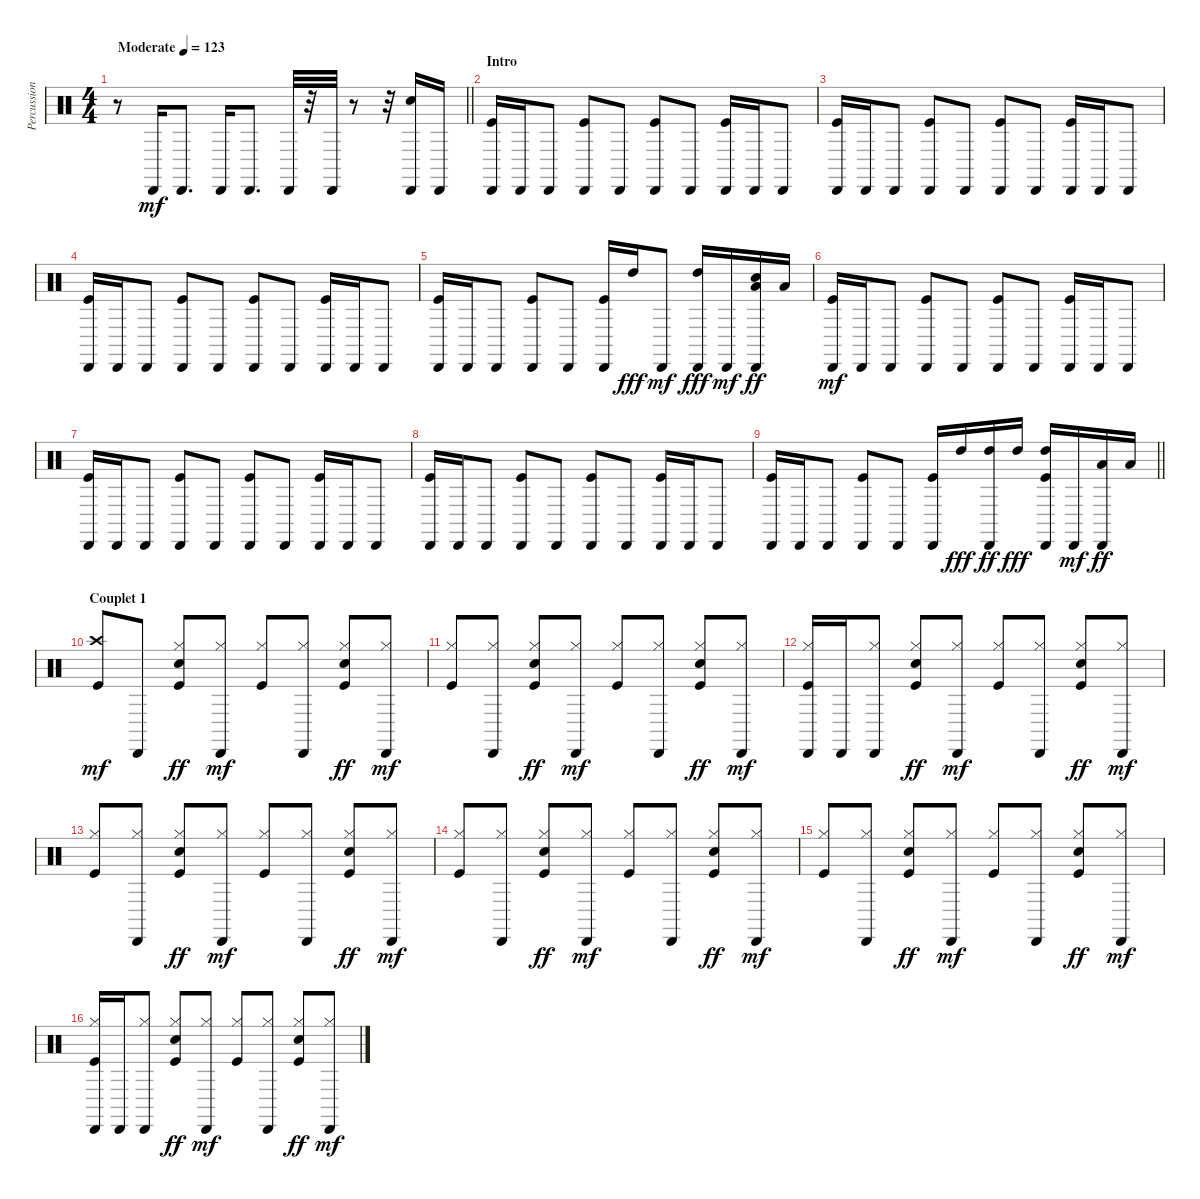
\track ("Percussions" "Percussion") {instrument percussion}
\staff {score}
\articulation defaults
\ts (4 4)
\tempo (123 "Moderate")
\clef neutral
\barLineRight lightlight
\ks c
r.8{dy mf} "Cabasa (hit)".16 "Cabasa (hit)".8{d} "Cabasa (hit)".16 "Cabasa (hit)".8{d} "Cabasa (hit)".32 r.32 "Cabasa (hit)".32 r.8 r.32 ("Hand Clap (hit)" "Cabasa (hit)").16 "Cabasa (hit)".16 |
\section ("" "Intro")
("Kick (hit)" "Cabasa (hit)").16 "Cabasa (hit)".16 "Cabasa (hit)".8 ("Kick (hit)" "Cabasa (hit)").8 "Cabasa (hit)".8 ("Kick (hit)" "Cabasa (hit)").8 "Cabasa (hit)".8 ("Kick (hit)" "Cabasa (hit)").16 "Cabasa (hit)".16 "Cabasa (hit)".8 |
("Kick (hit)" "Cabasa (hit)").16 "Cabasa (hit)".16 "Cabasa (hit)".8 ("Kick (hit)" "Cabasa (hit)").8 "Cabasa (hit)".8 ("Kick (hit)" "Cabasa (hit)").8 "Cabasa (hit)".8 ("Kick (hit)" "Cabasa (hit)").16 "Cabasa (hit)".16 "Cabasa (hit)".8 |
("Kick (hit)" "Cabasa (hit)").16 "Cabasa (hit)".16 "Cabasa (hit)".8 ("Kick (hit)" "Cabasa (hit)").8 "Cabasa (hit)".8 ("Kick (hit)" "Cabasa (hit)").8 "Cabasa (hit)".8 ("Kick (hit)" "Cabasa (hit)").16 "Cabasa (hit)".16 "Cabasa (hit)".8 |
("Kick (hit)" "Cabasa (hit)").16 "Cabasa (hit)".16 "Cabasa (hit)".8 ("Kick (hit)" "Cabasa (hit)").8 "Cabasa (hit)".8 ("Kick (hit)" "Cabasa (hit)").16 "High Tom (hit)".16{dy fff} "Cabasa (hit)".8{dy mf} ("Cabasa (hit)" "High Tom (hit)").16{dy fff} "Cabasa (hit)".16{dy mf} ("Hand Clap (hit)" "Cabasa (hit)" "Low Tom (hit)").16{dy ff} "Low Tom (hit)".16 |
("Kick (hit)" "Cabasa (hit)").16{dy mf} "Cabasa (hit)".16 "Cabasa (hit)".8 ("Kick (hit)" "Cabasa (hit)").8 "Cabasa (hit)".8 ("Kick (hit)" "Cabasa (hit)").8 "Cabasa (hit)".8 ("Kick (hit)" "Cabasa (hit)").16 "Cabasa (hit)".16 "Cabasa (hit)".8 |
("Kick (hit)" "Cabasa (hit)").16 "Cabasa (hit)".16 "Cabasa (hit)".8 ("Kick (hit)" "Cabasa (hit)").8 "Cabasa (hit)".8 ("Kick (hit)" "Cabasa (hit)").8 "Cabasa (hit)".8 ("Kick (hit)" "Cabasa (hit)").16 "Cabasa (hit)".16 "Cabasa (hit)".8 |
("Kick (hit)" "Cabasa (hit)").16 "Cabasa (hit)".16 "Cabasa (hit)".8 ("Kick (hit)" "Cabasa (hit)").8 "Cabasa (hit)".8 ("Kick (hit)" "Cabasa (hit)").8 "Cabasa (hit)".8 ("Kick (hit)" "Cabasa (hit)").16 "Cabasa (hit)".16 "Cabasa (hit)".8 |
\barLineRight lightlight
("Kick (hit)" "Cabasa (hit)").16 "Cabasa (hit)".16 "Cabasa (hit)".8 ("Kick (hit)" "Cabasa (hit)").8 "Cabasa (hit)".8 ("Kick (hit)" "Cabasa (hit)").16 "High Tom (hit)".16{dy fff} ("Cabasa (hit)" "High Tom (hit)").16{dy ff} "High Tom (hit)".16{dy fff} ("Kick (hit)" "Cabasa (hit)" "High Tom (hit)").16 "Cabasa (hit)".16{dy mf} ("Cabasa (hit)" "Low Tom (hit)").16{dy ff} "Low Tom (hit)".16 |
\section ("" "Couplet 1")
("Kick (hit)" "Crash high (hit)").8{dy mf} "Cabasa (hit)".8 ("Kick (hit)" "Snare (hit) 2" "Hi-Hat (closed)").8{dy ff} ("Hi-Hat (closed)" "Cabasa (hit)").8{dy mf} ("Kick (hit)" "Hi-Hat (closed)").8 ("Hi-Hat (closed)" "Cabasa (hit)").8 ("Kick (hit)" "Snare (hit) 2" "Hi-Hat (closed)").8{dy ff} ("Hi-Hat (closed)" "Cabasa (hit)").8{dy mf} |
("Kick (hit)" "Hi-Hat (closed)").8 ("Hi-Hat (closed)" "Cabasa (hit)").8 ("Kick (hit)" "Snare (hit) 2" "Hi-Hat (closed)").8{dy ff} ("Hi-Hat (closed)" "Cabasa (hit)").8{dy mf} ("Kick (hit)" "Hi-Hat (closed)").8 ("Hi-Hat (closed)" "Cabasa (hit)").8 ("Kick (hit)" "Snare (hit) 2" "Hi-Hat (closed)").8{dy ff} ("Hi-Hat (closed)" "Cabasa (hit)").8{dy mf} |
("Kick (hit)" "Hi-Hat (closed)" "Cabasa (hit)").16 "Cabasa (hit)".16 ("Hi-Hat (closed)" "Cabasa (hit)").8 ("Kick (hit)" "Snare (hit) 2" "Hi-Hat (closed)").8{dy ff} ("Hi-Hat (closed)" "Cabasa (hit)").8{dy mf} ("Kick (hit)" "Hi-Hat (closed)").8 ("Hi-Hat (closed)" "Cabasa (hit)").8 ("Kick (hit)" "Snare (hit) 2" "Hi-Hat (closed)").8{dy ff} ("Hi-Hat (closed)" "Cabasa (hit)").8{dy mf} |
("Kick (hit)" "Hi-Hat (closed)").8 ("Hi-Hat (closed)" "Cabasa (hit)").8 ("Kick (hit)" "Snare (hit) 2" "Hi-Hat (closed)").8{dy ff} ("Hi-Hat (closed)" "Cabasa (hit)").8{dy mf} ("Kick (hit)" "Hi-Hat (closed)").8 ("Hi-Hat (closed)" "Cabasa (hit)").8 ("Kick (hit)" "Snare (hit) 2" "Hi-Hat (closed)").8{dy ff} ("Hi-Hat (closed)" "Cabasa (hit)").8{dy mf} |
("Kick (hit)" "Hi-Hat (closed)").8 ("Hi-Hat (closed)" "Cabasa (hit)").8 ("Kick (hit)" "Snare (hit) 2" "Hi-Hat (closed)").8{dy ff} ("Hi-Hat (closed)" "Cabasa (hit)").8{dy mf} ("Kick (hit)" "Hi-Hat (closed)").8 ("Hi-Hat (closed)" "Cabasa (hit)").8 ("Kick (hit)" "Snare (hit) 2" "Hi-Hat (closed)").8{dy ff} ("Hi-Hat (closed)" "Cabasa (hit)").8{dy mf} |
("Kick (hit)" "Hi-Hat (closed)").8 ("Hi-Hat (closed)" "Cabasa (hit)").8 ("Kick (hit)" "Snare (hit) 2" "Hi-Hat (closed)").8{dy ff} ("Hi-Hat (closed)" "Cabasa (hit)").8{dy mf} ("Kick (hit)" "Hi-Hat (closed)").8 ("Hi-Hat (closed)" "Cabasa (hit)").8 ("Kick (hit)" "Snare (hit) 2" "Hi-Hat (closed)").8{dy ff} ("Hi-Hat (closed)" "Cabasa (hit)").8{dy mf} |
("Kick (hit)" "Hi-Hat (closed)" "Cabasa (hit)").16 "Cabasa (hit)".16 ("Hi-Hat (closed)" "Cabasa (hit)").8 ("Kick (hit)" "Snare (hit) 2" "Hi-Hat (closed)").8{dy ff} ("Hi-Hat (closed)" "Cabasa (hit)").8{dy mf} ("Kick (hit)" "Hi-Hat (closed)").8 ("Hi-Hat (closed)" "Cabasa (hit)").8 ("Kick (hit)" "Snare (hit) 2" "Hi-Hat (closed)").8{dy ff} ("Hi-Hat (closed)" "Cabasa (hit)").8{dy mf}
